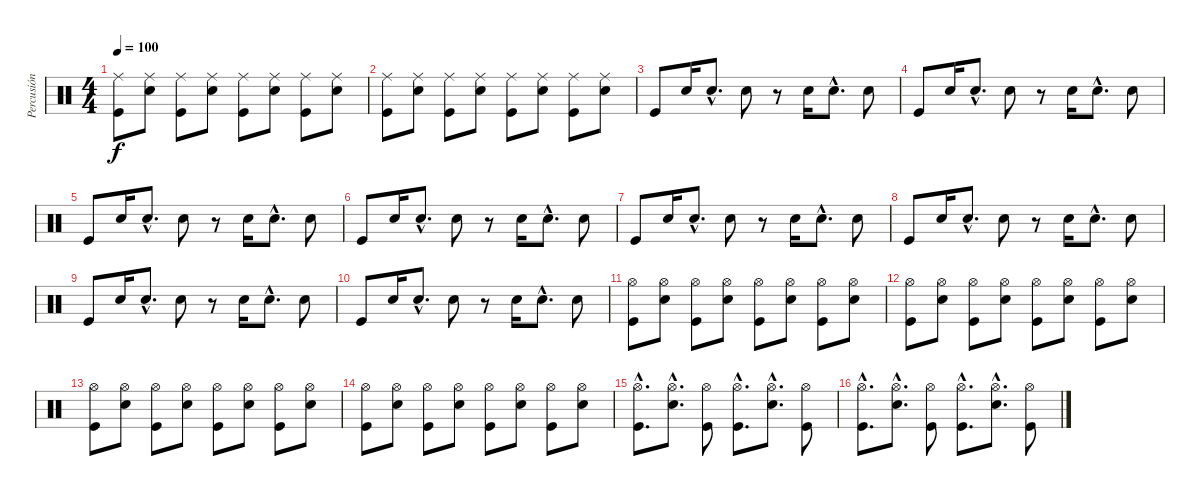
\track ("Percusión" "Percusión") {instrument percussion}
\staff {score}
\articulation defaults
\ts (4 4)
\tempo 100
\clef neutral
\ks c
("Ride (middle)" "Kick (hit)").8{dy f} ("Ride (middle)" "Snare (hit) 2").8 ("Ride (middle)" "Kick (hit)").8 ("Ride (middle)" "Snare (hit) 2").8 ("Ride (middle)" "Kick (hit)").8 ("Ride (middle)" "Snare (hit) 2").8 ("Ride (middle)" "Kick (hit)").8 ("Ride (middle)" "Snare (hit) 2").8 |
("Ride (middle)" "Kick (hit)").8 ("Ride (middle)" "Snare (hit) 2").8 ("Ride (middle)" "Kick (hit)").8 ("Ride (middle)" "Snare (hit) 2").8 ("Ride (middle)" "Kick (hit)").8 ("Ride (middle)" "Snare (hit) 2").8 ("Ride (middle)" "Kick (hit)").8 ("Ride (middle)" "Snare (hit) 2").8 |
"Kick (hit)".8 "Snare (hit) 2".16 "Snare (hit) 2"{hac}.8{d} "Snare (hit) 2".8 r.8 "Snare (hit) 2".16 "Snare (hit) 2"{hac}.8{d} "Snare (hit) 2".8 |
"Kick (hit)".8 "Snare (hit) 2".16 "Snare (hit) 2"{hac}.8{d} "Snare (hit) 2".8 r.8 "Snare (hit) 2".16 "Snare (hit) 2"{hac}.8{d} "Snare (hit) 2".8 |
"Kick (hit)".8 "Snare (hit) 2".16 "Snare (hit) 2"{hac}.8{d} "Snare (hit) 2".8 r.8 "Snare (hit) 2".16 "Snare (hit) 2"{hac}.8{d} "Snare (hit) 2".8 |
"Kick (hit)".8 "Snare (hit) 2".16 "Snare (hit) 2"{hac}.8{d} "Snare (hit) 2".8 r.8 "Snare (hit) 2".16 "Snare (hit) 2"{hac}.8{d} "Snare (hit) 2".8 |
"Kick (hit)".8 "Snare (hit) 2".16 "Snare (hit) 2"{hac}.8{d} "Snare (hit) 2".8 r.8 "Snare (hit) 2".16 "Snare (hit) 2"{hac}.8{d} "Snare (hit) 2".8 |
"Kick (hit)".8 "Snare (hit) 2".16 "Snare (hit) 2"{hac}.8{d} "Snare (hit) 2".8 r.8 "Snare (hit) 2".16 "Snare (hit) 2"{hac}.8{d} "Snare (hit) 2".8 |
"Kick (hit)".8 "Snare (hit) 2".16 "Snare (hit) 2"{hac}.8{d} "Snare (hit) 2".8 r.8 "Snare (hit) 2".16 "Snare (hit) 2"{hac}.8{d} "Snare (hit) 2".8 |
"Kick (hit)".8 "Snare (hit) 2".16 "Snare (hit) 2"{hac}.8{d} "Snare (hit) 2".8 r.8 "Snare (hit) 2".16 "Snare (hit) 2"{hac}.8{d} "Snare (hit) 2".8 |
("Hi-Hat (open)" "Kick (hit)").8 ("Hi-Hat (open)" "Snare (hit) 2").8 ("Hi-Hat (open)" "Kick (hit)").8 ("Hi-Hat (open)" "Snare (hit) 2").8 ("Hi-Hat (open)" "Kick (hit)").8 ("Hi-Hat (open)" "Snare (hit) 2").8 ("Hi-Hat (open)" "Kick (hit)").8 ("Hi-Hat (open)" "Snare (hit) 2").8 |
("Hi-Hat (open)" "Kick (hit)").8 ("Hi-Hat (open)" "Snare (hit) 2").8 ("Hi-Hat (open)" "Kick (hit)").8 ("Hi-Hat (open)" "Snare (hit) 2").8 ("Hi-Hat (open)" "Kick (hit)").8 ("Hi-Hat (open)" "Snare (hit) 2").8 ("Hi-Hat (open)" "Kick (hit)").8 ("Hi-Hat (open)" "Snare (hit) 2").8 |
("Hi-Hat (open)" "Kick (hit)").8 ("Hi-Hat (open)" "Snare (hit) 2").8 ("Hi-Hat (open)" "Kick (hit)").8 ("Hi-Hat (open)" "Snare (hit) 2").8 ("Hi-Hat (open)" "Kick (hit)").8 ("Hi-Hat (open)" "Snare (hit) 2").8 ("Hi-Hat (open)" "Kick (hit)").8 ("Hi-Hat (open)" "Snare (hit) 2").8 |
("Hi-Hat (open)" "Kick (hit)").8 ("Hi-Hat (open)" "Snare (hit) 2").8 ("Hi-Hat (open)" "Kick (hit)").8 ("Hi-Hat (open)" "Snare (hit) 2").8 ("Hi-Hat (open)" "Kick (hit)").8 ("Hi-Hat (open)" "Snare (hit) 2").8 ("Hi-Hat (open)" "Kick (hit)").8 ("Hi-Hat (open)" "Snare (hit) 2").8 |
("Hi-Hat (open)"{hac} "Kick (hit)"{hac}).8{d} ("Hi-Hat (open)"{hac} "Snare (hit) 2"{hac}).8{d} ("Hi-Hat (open)" "Kick (hit)").8 ("Hi-Hat (open)"{hac} "Kick (hit)"{hac}).8{d} ("Hi-Hat (open)"{hac} "Snare (hit) 2"{hac}).8{d} ("Hi-Hat (open)" "Kick (hit)").8 |
("Hi-Hat (open)"{hac} "Kick (hit)"{hac}).8{d} ("Hi-Hat (open)"{hac} "Snare (hit) 2"{hac}).8{d} ("Hi-Hat (open)" "Kick (hit)").8 ("Hi-Hat (open)"{hac} "Kick (hit)"{hac}).8{d} ("Hi-Hat (open)"{hac} "Snare (hit) 2"{hac}).8{d} ("Hi-Hat (open)" "Kick (hit)").8
